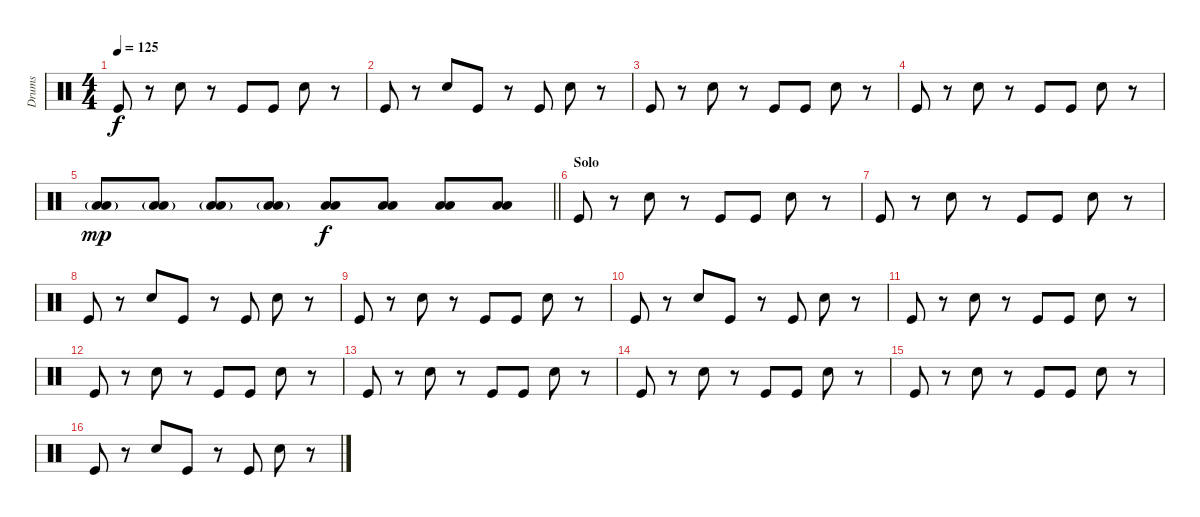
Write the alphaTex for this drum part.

\track ("Drums" "Drums") {instrument percussion}
\staff {score}
\articulation defaults
\ts (4 4)
\tempo 125
\clef neutral
\ks c "Kick (hit)".8{dy f}
r.8 "Snare (hit) 2".8 r.8 "Kick (hit)".8 "Kick (hit)".8 "Snare (hit) 2".8 r.8 |
"Kick (hit)".8 r.8 "Snare (hit) 2".8 "Kick (hit)".8 r.8 "Kick (hit)".8 "Snare (hit) 2".8 r.8 |
"Kick (hit)".8 r.8 "Snare (hit) 2".8 r.8 "Kick (hit)".8 "Kick (hit)".8 "Snare (hit) 2".8 r.8 |
"Kick (hit)".8 r.8 "Snare (hit) 2".8 r.8 "Kick (hit)".8 "Kick (hit)".8 "Snare (hit) 2".8 r.8 |
\barLineRight lightlight
("Low Floor Tom (hit)"{g} "Low Tom (hit)"{g}).8{dy mp} ("Low Floor Tom (hit)"{g} "Low Tom (hit)"{g}).8 ("Low Floor Tom (hit)"{g} "Low Tom (hit)"{g}).8 ("Low Floor Tom (hit)"{g} "Low Tom (hit)"{g}).8 ("Low Floor Tom (hit)" "Low Tom (hit)").8{dy f} ("Low Floor Tom (hit)" "Low Tom (hit)").8 ("Low Floor Tom (hit)" "Low Tom (hit)").8 ("Low Floor Tom (hit)" "Low Tom (hit)").8 |
\section ("" "Solo")
"Kick (hit)".8 r.8 "Snare (hit) 2".8 r.8 "Kick (hit)".8 "Kick (hit)".8 "Snare (hit) 2".8 r.8 |
"Kick (hit)".8 r.8 "Snare (hit) 2".8 r.8 "Kick (hit)".8 "Kick (hit)".8 "Snare (hit) 2".8 r.8 |
"Kick (hit)".8 r.8 "Snare (hit) 2".8 "Kick (hit)".8 r.8 "Kick (hit)".8 "Snare (hit) 2".8 r.8 |
"Kick (hit)".8 r.8 "Snare (hit) 2".8 r.8 "Kick (hit)".8 "Kick (hit)".8 "Snare (hit) 2".8 r.8 |
"Kick (hit)".8 r.8 "Snare (hit) 2".8 "Kick (hit)".8 r.8 "Kick (hit)".8 "Snare (hit) 2".8 r.8 |
"Kick (hit)".8 r.8 "Snare (hit) 2".8 r.8 "Kick (hit)".8 "Kick (hit)".8 "Snare (hit) 2".8 r.8 |
"Kick (hit)".8 r.8 "Snare (hit) 2".8 r.8 "Kick (hit)".8 "Kick (hit)".8 "Snare (hit) 2".8 r.8 |
"Kick (hit)".8 r.8 "Snare (hit) 2".8 r.8 "Kick (hit)".8 "Kick (hit)".8 "Snare (hit) 2".8 r.8 |
"Kick (hit)".8 r.8 "Snare (hit) 2".8 r.8 "Kick (hit)".8 "Kick (hit)".8 "Snare (hit) 2".8 r.8 |
"Kick (hit)".8 r.8 "Snare (hit) 2".8 r.8 "Kick (hit)".8 "Kick (hit)".8 "Snare (hit) 2".8 r.8 |
"Kick (hit)".8 r.8 "Snare (hit) 2".8 "Kick (hit)".8 r.8 "Kick (hit)".8 "Snare (hit) 2".8 r.8
